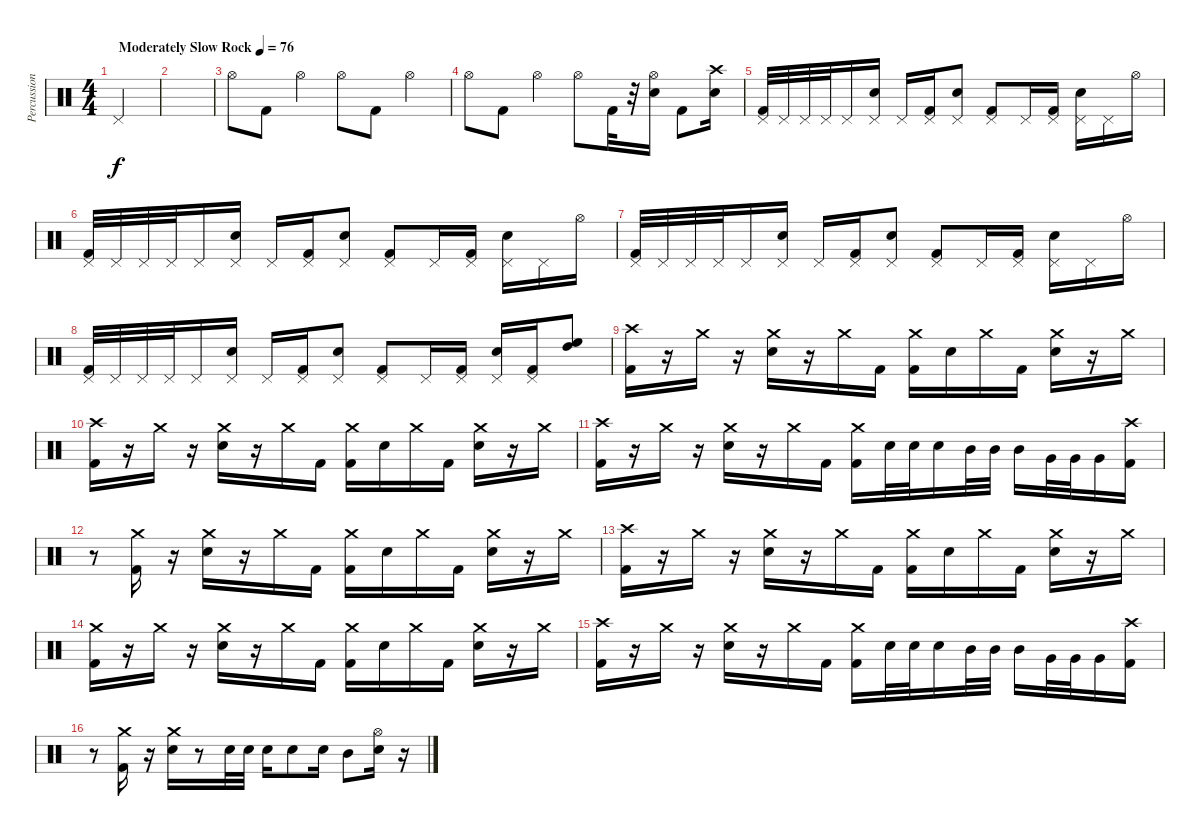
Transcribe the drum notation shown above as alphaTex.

\track ("Percussion" "Percussion") {instrument percussion}
\staff {score}
\articulation defaults
\ts (4 4)
\tempo (76 "Moderately Slow Rock")
\clef neutral
\ks c "Pedal Hi-Hat (hit)".4{dy f volume 16}
|
|
"Hi-Hat (open)".8{volume 16} "Kick (hit) 2".8 "Hi-Hat (open)".4 "Hi-Hat (open)".8 "Kick (hit) 2".8 "Hi-Hat (open)".4 |
"Hi-Hat (open)".8 "Kick (hit) 2".8 "Hi-Hat (open)".4 "Hi-Hat (open)".8 "Kick (hit) 2".32 r.32 ("Hi-Hat (open)" "Electric Snare (hit)").16 "Kick (hit) 2".8 ("Crash high (hit)" "Electric Snare (hit)").16 |
("Pedal Hi-Hat (hit)" "Kick (hit) 2").32 "Pedal Hi-Hat (hit)".32 "Pedal Hi-Hat (hit)".32 "Pedal Hi-Hat (hit)".32 "Pedal Hi-Hat (hit)".16 ("Pedal Hi-Hat (hit)" "Electric Snare (hit)").16 "Pedal Hi-Hat (hit)".16 ("Pedal Hi-Hat (hit)" "Kick (hit) 2").16 ("Pedal Hi-Hat (hit)" "Electric Snare (hit)").8 ("Pedal Hi-Hat (hit)" "Kick (hit) 2").8 "Pedal Hi-Hat (hit)".16 ("Pedal Hi-Hat (hit)" "Kick (hit) 2").16 ("Pedal Hi-Hat (hit)" "Electric Snare (hit)").16 "Pedal Hi-Hat (hit)".16 "Hi-Hat (open)".16 |
("Pedal Hi-Hat (hit)" "Kick (hit) 2").32 "Pedal Hi-Hat (hit)".32 "Pedal Hi-Hat (hit)".32 "Pedal Hi-Hat (hit)".32 "Pedal Hi-Hat (hit)".16 ("Pedal Hi-Hat (hit)" "Electric Snare (hit)").16 "Pedal Hi-Hat (hit)".16 ("Pedal Hi-Hat (hit)" "Kick (hit) 2").16 ("Pedal Hi-Hat (hit)" "Electric Snare (hit)").8 ("Pedal Hi-Hat (hit)" "Kick (hit) 2").8 "Pedal Hi-Hat (hit)".16 ("Pedal Hi-Hat (hit)" "Kick (hit) 2").16 ("Pedal Hi-Hat (hit)" "Electric Snare (hit)").16 "Pedal Hi-Hat (hit)".16 "Hi-Hat (open)".16 |
("Pedal Hi-Hat (hit)" "Kick (hit) 2").32 "Pedal Hi-Hat (hit)".32 "Pedal Hi-Hat (hit)".32 "Pedal Hi-Hat (hit)".32 "Pedal Hi-Hat (hit)".16 ("Pedal Hi-Hat (hit)" "Electric Snare (hit)").16 "Pedal Hi-Hat (hit)".16 ("Pedal Hi-Hat (hit)" "Kick (hit) 2").16 ("Pedal Hi-Hat (hit)" "Electric Snare (hit)").8 ("Pedal Hi-Hat (hit)" "Kick (hit) 2").8 "Pedal Hi-Hat (hit)".16 ("Pedal Hi-Hat (hit)" "Kick (hit) 2").16 ("Pedal Hi-Hat (hit)" "Electric Snare (hit)").16 "Pedal Hi-Hat (hit)".16 "Hi-Hat (open)".16 |
("Pedal Hi-Hat (hit)" "Kick (hit) 2").32 "Pedal Hi-Hat (hit)".32 "Pedal Hi-Hat (hit)".32 "Pedal Hi-Hat (hit)".32 "Pedal Hi-Hat (hit)".16 ("Pedal Hi-Hat (hit)" "Electric Snare (hit)").16 "Pedal Hi-Hat (hit)".16 ("Pedal Hi-Hat (hit)" "Kick (hit) 2").16 ("Pedal Hi-Hat (hit)" "Electric Snare (hit)").8 ("Pedal Hi-Hat (hit)" "Kick (hit) 2").8 "Pedal Hi-Hat (hit)".16 ("Pedal Hi-Hat (hit)" "Kick (hit) 2").16 ("Pedal Hi-Hat (hit)" "Electric Snare (hit)").16 ("Pedal Hi-Hat (hit)" "Kick (hit) 2").16 ("High Tom (hit)" "High Floor Tom (hit)").8 |
("Crash high (hit)" "Kick (hit) 2").16 r.16 "Crash medium (hit)".16 r.16 ("Crash medium (hit)" "Electric Snare (hit)").16 r.16 "Crash medium (hit)".16 "Kick (hit) 2".16 ("Crash medium (hit)" "Kick (hit) 2").16 "Electric Snare (hit)".16 "Crash medium (hit)".16 "Kick (hit) 2".16 ("Crash medium (hit)" "Electric Snare (hit)").16 r.16 "Crash medium (hit)".16 |
("Crash high (hit)" "Kick (hit) 2").16 r.16 "Crash medium (hit)".16 r.16 ("Crash medium (hit)" "Electric Snare (hit)").16 r.16 "Crash medium (hit)".16 "Kick (hit) 2".16 ("Crash medium (hit)" "Kick (hit) 2").16 "Electric Snare (hit)".16 "Crash medium (hit)".16 "Kick (hit) 2".16 ("Crash medium (hit)" "Electric Snare (hit)").16 r.16 "Crash medium (hit)".16 |
("Crash high (hit)" "Kick (hit) 2").16 r.16 "Crash medium (hit)".16 r.16 ("Crash medium (hit)" "Electric Snare (hit)").16 r.16 "Crash medium (hit)".16 "Kick (hit) 2".16 ("Crash medium (hit)" "Kick (hit) 2").16 "Electric Snare (hit)".32 "Electric Snare (hit)".32 "Electric Snare (hit)".16 "Mid Tom (hit)".32 "Mid Tom (hit)".32 "Mid Tom (hit)".16 "Very Low Tom (hit)".32 "Very Low Tom (hit)".32 "Very Low Tom (hit)".16 ("Crash high (hit)" "Kick (hit) 2").16 |
r.8 ("Crash medium (hit)" "Kick (hit) 2").16 r.16 ("Crash medium (hit)" "Electric Snare (hit)").16 r.16 "Crash medium (hit)".16 "Kick (hit) 2".16 ("Crash medium (hit)" "Kick (hit) 2").16 "Electric Snare (hit)".16 "Crash medium (hit)".16 "Kick (hit) 2".16 ("Crash medium (hit)" "Electric Snare (hit)").16 r.16 "Crash medium (hit)".16 |
("Crash high (hit)" "Kick (hit) 2").16 r.16 "Crash medium (hit)".16 r.16 ("Crash medium (hit)" "Electric Snare (hit)").16 r.16 "Crash medium (hit)".16 "Kick (hit) 2".16 ("Crash medium (hit)" "Kick (hit) 2").16 "Electric Snare (hit)".16 "Crash medium (hit)".16 "Kick (hit) 2".16 ("Crash medium (hit)" "Electric Snare (hit)").16 r.16 "Crash medium (hit)".16 |
("Crash medium (hit)" "Kick (hit) 2").16 r.16 "Crash medium (hit)".16 r.16 ("Crash medium (hit)" "Electric Snare (hit)").16 r.16 "Crash medium (hit)".16 "Kick (hit) 2".16 ("Crash medium (hit)" "Kick (hit) 2").16 "Electric Snare (hit)".16 "Crash medium (hit)".16 "Kick (hit) 2".16 ("Crash medium (hit)" "Electric Snare (hit)").16 r.16 "Crash medium (hit)".16 |
("Crash high (hit)" "Kick (hit) 2").16 r.16 "Crash medium (hit)".16 r.16 ("Crash medium (hit)" "Electric Snare (hit)").16 r.16 "Crash medium (hit)".16 "Kick (hit) 2".16 ("Crash medium (hit)" "Kick (hit) 2").16 "Electric Snare (hit)".32 "Electric Snare (hit)".32 "Electric Snare (hit)".16 "Mid Tom (hit)".32 "Mid Tom (hit)".32 "Mid Tom (hit)".16 "Very Low Tom (hit)".32 "Very Low Tom (hit)".32 "Very Low Tom (hit)".16 ("Crash high (hit)" "Kick (hit) 2").16 |
r.8 ("Crash medium (hit)" "Kick (hit) 2").16 r.16 ("Crash medium (hit)" "Electric Snare (hit)").16 r.8 "Electric Snare (hit)".32 "Electric Snare (hit)".32 "Electric Snare (hit)".16 "Electric Snare (hit)".8 "Electric Snare (hit)".16 "Mid Tom (hit)".8 ("Hi-Hat (open)" "Electric Snare (hit)").16 r.16
